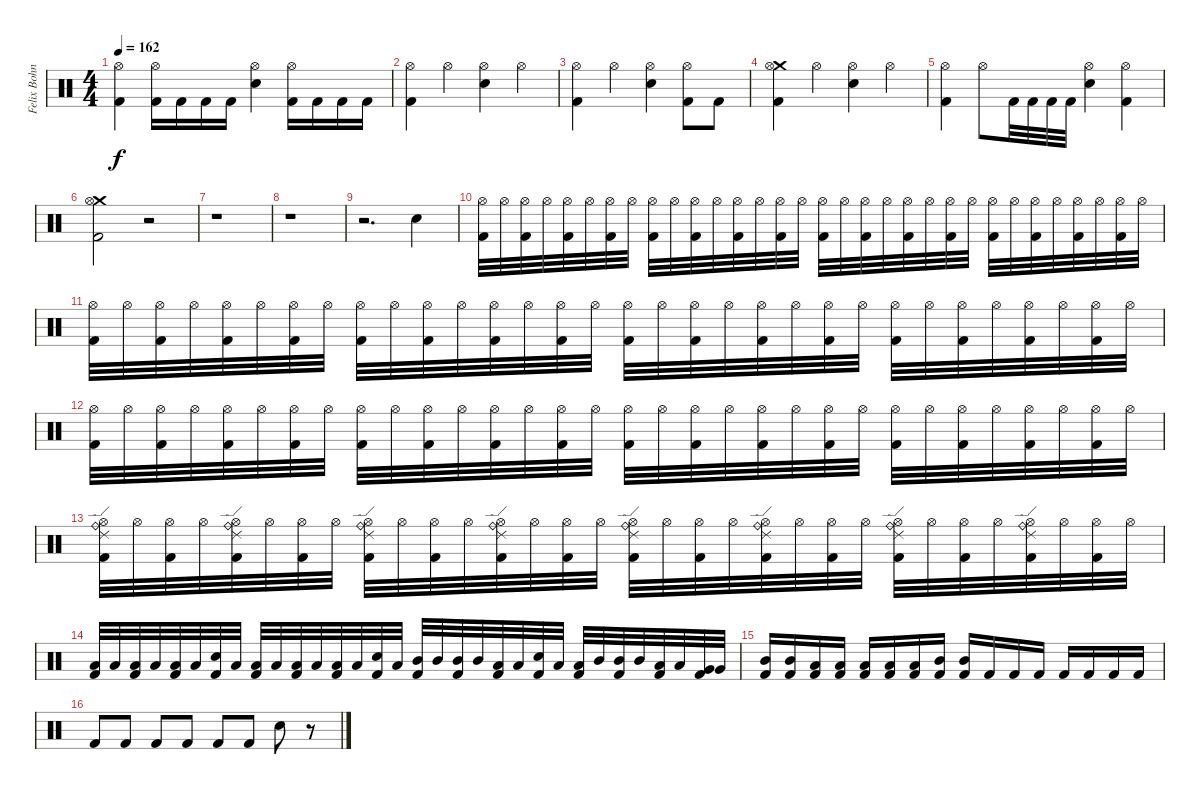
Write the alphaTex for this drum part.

\track ("Felix Bohnke" "Felix Bohn") {instrument percussion}
\staff {score}
\articulation defaults
\ts (4 4)
\tempo 162
\clef neutral
\ks c
("Kick (hit) 2" "Hi-Hat (open)").4{dy f} ("Kick (hit) 2" "Hi-Hat (open)").16 "Kick (hit) 2".16 "Kick (hit) 2".16 "Kick (hit) 2".16 ("Electric Snare (hit)" "Hi-Hat (open)").4 ("Kick (hit) 2" "Hi-Hat (open)").16 "Kick (hit) 2".16 "Kick (hit) 2".16 "Kick (hit) 2".16 |
("Kick (hit) 2" "Hi-Hat (open)").4 "Hi-Hat (open)".4 ("Electric Snare (hit)" "Hi-Hat (open)").4 "Hi-Hat (open)".4 |
("Kick (hit) 2" "Hi-Hat (open)").4 "Hi-Hat (open)".4 ("Electric Snare (hit)" "Hi-Hat (open)").4 ("Kick (hit) 2" "Hi-Hat (open)").8 "Kick (hit) 2".8 |
("Crash medium (hit)" "Kick (hit) 2" "Hi-Hat (open)").4 "Hi-Hat (open)".4 ("Electric Snare (hit)" "Hi-Hat (open)").4 "Hi-Hat (open)".4 |
("Kick (hit) 2" "Hi-Hat (open)").4 "Hi-Hat (open)".8 "Kick (hit) 2".32 "Kick (hit) 2".32 "Kick (hit) 2".32 "Kick (hit) 2".32 ("Electric Snare (hit)" "Hi-Hat (open)").4 ("Kick (hit) 2" "Hi-Hat (open)").4 |
("Kick (hit) 2" "Crash medium (hit)" "Hi-Hat (open)").2 r.2 |
r.1 |
r.1 |
r.2{d} "Electric Snare (hit)".4 |
("Hi-Hat (open)" "Kick (hit) 2").32 "Hi-Hat (open)".32 ("Hi-Hat (open)" "Kick (hit) 2").32 "Hi-Hat (open)".32 ("Hi-Hat (open)" "Kick (hit) 2").32 "Hi-Hat (open)".32 ("Hi-Hat (open)" "Kick (hit) 2").32 "Hi-Hat (open)".32 ("Hi-Hat (open)" "Kick (hit) 2").32 "Hi-Hat (open)".32 ("Hi-Hat (open)" "Kick (hit) 2").32 "Hi-Hat (open)".32 ("Hi-Hat (open)" "Kick (hit) 2").32 "Hi-Hat (open)".32 ("Hi-Hat (open)" "Kick (hit) 2").32 "Hi-Hat (open)".32 ("Hi-Hat (open)" "Kick (hit) 2").32 "Hi-Hat (open)".32 ("Hi-Hat (open)" "Kick (hit) 2").32 "Hi-Hat (open)".32 ("Hi-Hat (open)" "Kick (hit) 2").32 "Hi-Hat (open)".32 ("Hi-Hat (open)" "Kick (hit) 2").32 "Hi-Hat (open)".32 ("Hi-Hat (open)" "Kick (hit) 2").32 "Hi-Hat (open)".32 ("Hi-Hat (open)" "Kick (hit) 2").32 "Hi-Hat (open)".32 ("Hi-Hat (open)" "Kick (hit) 2").32 "Hi-Hat (open)".32 ("Hi-Hat (open)" "Kick (hit) 2").32 "Hi-Hat (open)".32 |
("Hi-Hat (open)" "Kick (hit) 2").32 "Hi-Hat (open)".32 ("Hi-Hat (open)" "Kick (hit) 2").32 "Hi-Hat (open)".32 ("Hi-Hat (open)" "Kick (hit) 2").32 "Hi-Hat (open)".32 ("Hi-Hat (open)" "Kick (hit) 2").32 "Hi-Hat (open)".32 ("Hi-Hat (open)" "Kick (hit) 2").32 "Hi-Hat (open)".32 ("Hi-Hat (open)" "Kick (hit) 2").32 "Hi-Hat (open)".32 ("Hi-Hat (open)" "Kick (hit) 2").32 "Hi-Hat (open)".32 ("Hi-Hat (open)" "Kick (hit) 2").32 "Hi-Hat (open)".32 ("Hi-Hat (open)" "Kick (hit) 2").32 "Hi-Hat (open)".32 ("Hi-Hat (open)" "Kick (hit) 2").32 "Hi-Hat (open)".32 ("Hi-Hat (open)" "Kick (hit) 2").32 "Hi-Hat (open)".32 ("Hi-Hat (open)" "Kick (hit) 2").32 "Hi-Hat (open)".32 ("Hi-Hat (open)" "Kick (hit) 2").32 "Hi-Hat (open)".32 ("Hi-Hat (open)" "Kick (hit) 2").32 "Hi-Hat (open)".32 ("Hi-Hat (open)" "Kick (hit) 2").32 "Hi-Hat (open)".32 ("Hi-Hat (open)" "Kick (hit) 2").32 "Hi-Hat (open)".32 |
("Hi-Hat (open)" "Kick (hit) 2").32 "Hi-Hat (open)".32 ("Hi-Hat (open)" "Kick (hit) 2").32 "Hi-Hat (open)".32 ("Hi-Hat (open)" "Kick (hit) 2").32 "Hi-Hat (open)".32 ("Hi-Hat (open)" "Kick (hit) 2").32 "Hi-Hat (open)".32 ("Hi-Hat (open)" "Kick (hit) 2").32 "Hi-Hat (open)".32 ("Hi-Hat (open)" "Kick (hit) 2").32 "Hi-Hat (open)".32 ("Hi-Hat (open)" "Kick (hit) 2").32 "Hi-Hat (open)".32 ("Hi-Hat (open)" "Kick (hit) 2").32 "Hi-Hat (open)".32 ("Hi-Hat (open)" "Kick (hit) 2").32 "Hi-Hat (open)".32 ("Hi-Hat (open)" "Kick (hit) 2").32 "Hi-Hat (open)".32 ("Hi-Hat (open)" "Kick (hit) 2").32 "Hi-Hat (open)".32 ("Hi-Hat (open)" "Kick (hit) 2").32 "Hi-Hat (open)".32 ("Hi-Hat (open)" "Kick (hit) 2").32 "Hi-Hat (open)".32 ("Hi-Hat (open)" "Kick (hit) 2").32 "Hi-Hat (open)".32 ("Hi-Hat (open)" "Kick (hit) 2").32 "Hi-Hat (open)".32 ("Hi-Hat (open)" "Kick (hit) 2").32 "Hi-Hat (open)".32 |
("Ride (bell)" "Ride (edge) 2" "Hi-Hat (open)" "Kick (hit) 2").32 "Hi-Hat (open)".32 ("Hi-Hat (open)" "Kick (hit) 2").32 "Hi-Hat (open)".32 ("Ride (bell)" "Ride (edge) 2" "Hi-Hat (open)" "Kick (hit) 2").32 "Hi-Hat (open)".32 ("Hi-Hat (open)" "Kick (hit) 2").32 "Hi-Hat (open)".32 ("Ride (bell)" "Ride (edge) 2" "Hi-Hat (open)" "Kick (hit) 2").32 "Hi-Hat (open)".32 ("Hi-Hat (open)" "Kick (hit) 2").32 "Hi-Hat (open)".32 ("Ride (bell)" "Ride (edge) 2" "Hi-Hat (open)" "Kick (hit) 2").32 "Hi-Hat (open)".32 ("Hi-Hat (open)" "Kick (hit) 2").32 "Hi-Hat (open)".32 ("Ride (bell)" "Ride (edge) 2" "Hi-Hat (open)" "Kick (hit) 2").32 "Hi-Hat (open)".32 ("Hi-Hat (open)" "Kick (hit) 2").32 "Hi-Hat (open)".32 ("Ride (bell)" "Ride (edge) 2" "Hi-Hat (open)" "Kick (hit) 2").32 "Hi-Hat (open)".32 ("Hi-Hat (open)" "Kick (hit) 2").32 "Hi-Hat (open)".32 ("Ride (bell)" "Ride (edge) 2" "Hi-Hat (open)" "Kick (hit) 2").32 "Hi-Hat (open)".32 ("Hi-Hat (open)" "Kick (hit) 2").32 "Hi-Hat (open)".32 ("Ride (bell)" "Ride (edge) 2" "Hi-Hat (open)" "Kick (hit) 2").32 "Hi-Hat (open)".32 ("Hi-Hat (open)" "Kick (hit) 2").32 "Hi-Hat (open)".32 |
("Low Tom (hit)" "Kick (hit) 2").32 "Low Tom (hit)".32 ("Low Tom (hit)" "Kick (hit) 2").32 "Low Tom (hit)".32 ("Low Tom (hit)" "Kick (hit) 2").32 "Low Tom (hit)".32 ("Electric Snare (hit)" "Kick (hit) 2").32 "Low Tom (hit)".32 ("Low Tom (hit)" "Kick (hit) 2").32 "Low Tom (hit)".32 ("Low Tom (hit)" "Kick (hit) 2").32 "Low Tom (hit)".32 ("Low Tom (hit)" "Kick (hit) 2").32 "Low Tom (hit)".32 ("Electric Snare (hit)" "Kick (hit) 2").32 "Low Tom (hit)".32 ("Mid Tom (hit)" "Kick (hit) 2").32 "Mid Tom (hit)".32 ("Mid Tom (hit)" "Kick (hit) 2").32 "Mid Tom (hit)".32 ("Low Tom (hit)" "Kick (hit) 2").32 "Low Tom (hit)".32 ("Electric Snare (hit)" "Kick (hit) 2").32 "Low Tom (hit)".32 ("Low Tom (hit)" "Kick (hit) 2").32 "Mid Tom (hit)".32 ("Mid Tom (hit)" "Kick (hit) 2").32 "Mid Tom (hit)".32 ("Low Tom (hit)" "Kick (hit) 2").32 "Low Tom (hit)".32 ("Very Low Tom (hit)" "Kick (hit) 2").32 "Very Low Tom (hit)".32 |
("Mid Tom (hit)" "Kick (hit) 2").16 ("Mid Tom (hit)" "Kick (hit) 2").16 ("Low Tom (hit)" "Kick (hit) 2").16 ("Low Tom (hit)" "Kick (hit) 2").16 ("Low Tom (hit)" "Kick (hit) 2").16 ("Low Tom (hit)" "Kick (hit) 2").16 ("Low Tom (hit)" "Kick (hit) 2").16 ("Mid Tom (hit)" "Kick (hit) 2").16 ("Mid Tom (hit)" "Kick (hit) 2").16 "Kick (hit) 2".16 "Kick (hit) 2".16 "Kick (hit) 2".16 "Kick (hit) 2".16 "Kick (hit) 2".16 "Kick (hit) 2".16 "Kick (hit) 2".16 |
"Kick (hit) 2".8 "Kick (hit) 2".8 "Kick (hit) 2".8 "Kick (hit) 2".8 "Kick (hit) 2".8 "Kick (hit) 2".8 "Electric Snare (hit)".8 r.8
